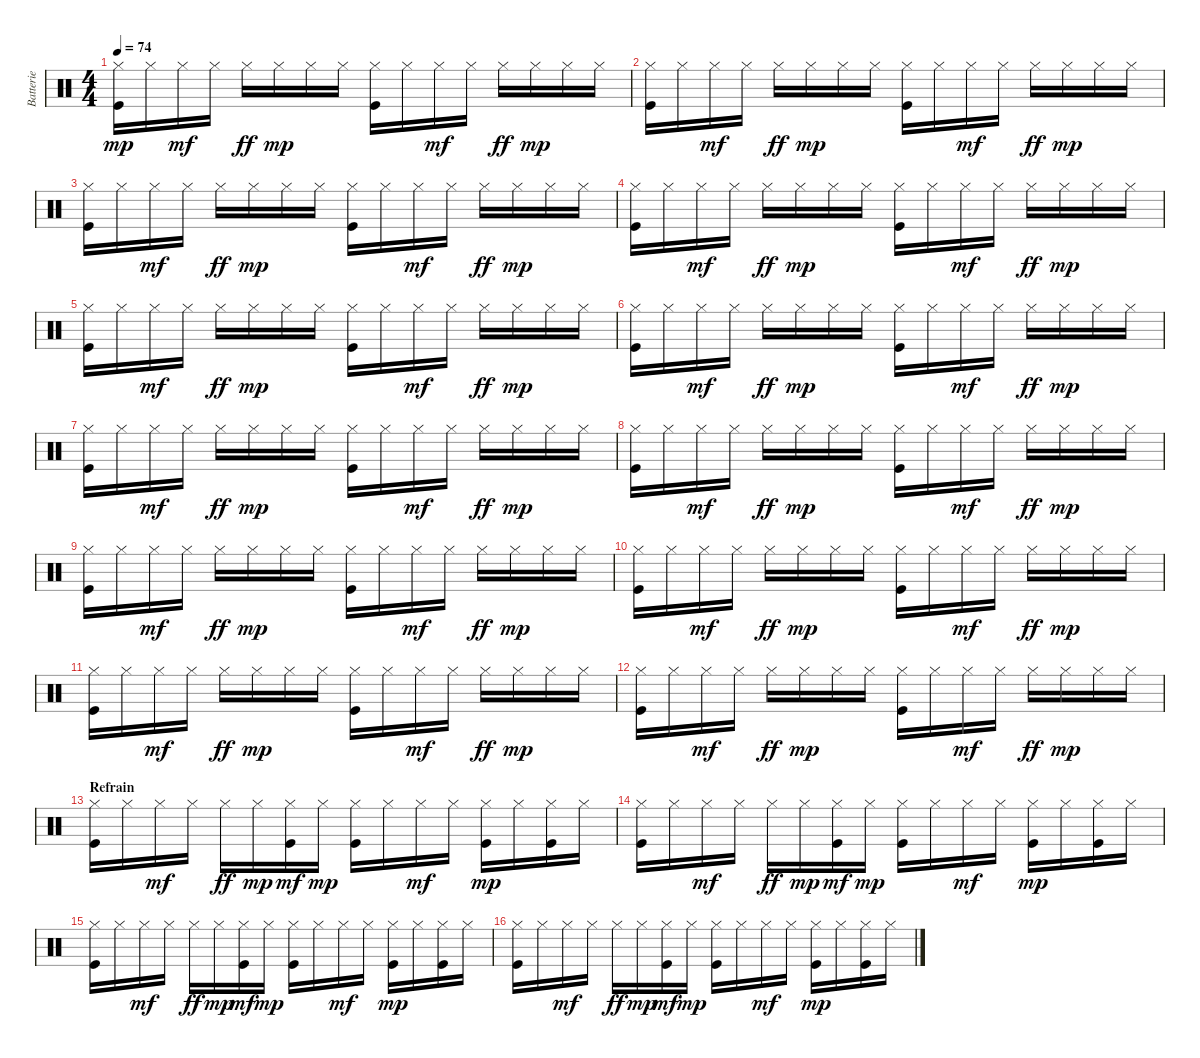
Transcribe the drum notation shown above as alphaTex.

\track ("Batterie" "Batterie") {instrument percussion}
\staff {score}
\articulation defaults
\ts (4 4)
\tempo 74
\clef neutral
\ks c
("Hi-Hat (closed)" "Kick (hit)").16{dy mp} "Hi-Hat (closed)".16 "Hi-Hat (closed)".16{dy mf} "Hi-Hat (closed)".16 "Hi-Hat (closed)".16{dy ff} "Hi-Hat (closed)".16{dy mp} "Hi-Hat (closed)".16 "Hi-Hat (closed)".16 ("Hi-Hat (closed)" "Kick (hit)").16 "Hi-Hat (closed)".16 "Hi-Hat (closed)".16{dy mf} "Hi-Hat (closed)".16 "Hi-Hat (closed)".16{dy ff} "Hi-Hat (closed)".16{dy mp} "Hi-Hat (closed)".16 "Hi-Hat (closed)".16 |
("Hi-Hat (closed)" "Kick (hit)").16 "Hi-Hat (closed)".16 "Hi-Hat (closed)".16{dy mf} "Hi-Hat (closed)".16 "Hi-Hat (closed)".16{dy ff} "Hi-Hat (closed)".16{dy mp} "Hi-Hat (closed)".16 "Hi-Hat (closed)".16 ("Hi-Hat (closed)" "Kick (hit)").16 "Hi-Hat (closed)".16 "Hi-Hat (closed)".16{dy mf} "Hi-Hat (closed)".16 "Hi-Hat (closed)".16{dy ff} "Hi-Hat (closed)".16{dy mp} "Hi-Hat (closed)".16 "Hi-Hat (closed)".16 |
("Hi-Hat (closed)" "Kick (hit)").16 "Hi-Hat (closed)".16 "Hi-Hat (closed)".16{dy mf} "Hi-Hat (closed)".16 "Hi-Hat (closed)".16{dy ff} "Hi-Hat (closed)".16{dy mp} "Hi-Hat (closed)".16 "Hi-Hat (closed)".16 ("Hi-Hat (closed)" "Kick (hit)").16 "Hi-Hat (closed)".16 "Hi-Hat (closed)".16{dy mf} "Hi-Hat (closed)".16 "Hi-Hat (closed)".16{dy ff} "Hi-Hat (closed)".16{dy mp} "Hi-Hat (closed)".16 "Hi-Hat (closed)".16 |
("Hi-Hat (closed)" "Kick (hit)").16 "Hi-Hat (closed)".16 "Hi-Hat (closed)".16{dy mf} "Hi-Hat (closed)".16 "Hi-Hat (closed)".16{dy ff} "Hi-Hat (closed)".16{dy mp} "Hi-Hat (closed)".16 "Hi-Hat (closed)".16 ("Hi-Hat (closed)" "Kick (hit)").16 "Hi-Hat (closed)".16 "Hi-Hat (closed)".16{dy mf} "Hi-Hat (closed)".16 "Hi-Hat (closed)".16{dy ff} "Hi-Hat (closed)".16{dy mp} "Hi-Hat (closed)".16 "Hi-Hat (closed)".16 |
("Hi-Hat (closed)" "Kick (hit)").16 "Hi-Hat (closed)".16 "Hi-Hat (closed)".16{dy mf} "Hi-Hat (closed)".16 "Hi-Hat (closed)".16{dy ff} "Hi-Hat (closed)".16{dy mp} "Hi-Hat (closed)".16 "Hi-Hat (closed)".16 ("Hi-Hat (closed)" "Kick (hit)").16 "Hi-Hat (closed)".16 "Hi-Hat (closed)".16{dy mf} "Hi-Hat (closed)".16 "Hi-Hat (closed)".16{dy ff} "Hi-Hat (closed)".16{dy mp} "Hi-Hat (closed)".16 "Hi-Hat (closed)".16 |
("Hi-Hat (closed)" "Kick (hit)").16 "Hi-Hat (closed)".16 "Hi-Hat (closed)".16{dy mf} "Hi-Hat (closed)".16 "Hi-Hat (closed)".16{dy ff} "Hi-Hat (closed)".16{dy mp} "Hi-Hat (closed)".16 "Hi-Hat (closed)".16 ("Hi-Hat (closed)" "Kick (hit)").16 "Hi-Hat (closed)".16 "Hi-Hat (closed)".16{dy mf} "Hi-Hat (closed)".16 "Hi-Hat (closed)".16{dy ff} "Hi-Hat (closed)".16{dy mp} "Hi-Hat (closed)".16 "Hi-Hat (closed)".16 |
("Hi-Hat (closed)" "Kick (hit)").16 "Hi-Hat (closed)".16 "Hi-Hat (closed)".16{dy mf} "Hi-Hat (closed)".16 "Hi-Hat (closed)".16{dy ff} "Hi-Hat (closed)".16{dy mp} "Hi-Hat (closed)".16 "Hi-Hat (closed)".16 ("Hi-Hat (closed)" "Kick (hit)").16 "Hi-Hat (closed)".16 "Hi-Hat (closed)".16{dy mf} "Hi-Hat (closed)".16 "Hi-Hat (closed)".16{dy ff} "Hi-Hat (closed)".16{dy mp} "Hi-Hat (closed)".16 "Hi-Hat (closed)".16 |
("Hi-Hat (closed)" "Kick (hit)").16 "Hi-Hat (closed)".16 "Hi-Hat (closed)".16{dy mf} "Hi-Hat (closed)".16 "Hi-Hat (closed)".16{dy ff} "Hi-Hat (closed)".16{dy mp} "Hi-Hat (closed)".16 "Hi-Hat (closed)".16 ("Hi-Hat (closed)" "Kick (hit)").16 "Hi-Hat (closed)".16 "Hi-Hat (closed)".16{dy mf} "Hi-Hat (closed)".16 "Hi-Hat (closed)".16{dy ff} "Hi-Hat (closed)".16{dy mp} "Hi-Hat (closed)".16 "Hi-Hat (closed)".16 |
("Hi-Hat (closed)" "Kick (hit)").16 "Hi-Hat (closed)".16 "Hi-Hat (closed)".16{dy mf} "Hi-Hat (closed)".16 "Hi-Hat (closed)".16{dy ff} "Hi-Hat (closed)".16{dy mp} "Hi-Hat (closed)".16 "Hi-Hat (closed)".16 ("Hi-Hat (closed)" "Kick (hit)").16 "Hi-Hat (closed)".16 "Hi-Hat (closed)".16{dy mf} "Hi-Hat (closed)".16 "Hi-Hat (closed)".16{dy ff} "Hi-Hat (closed)".16{dy mp} "Hi-Hat (closed)".16 "Hi-Hat (closed)".16 |
("Hi-Hat (closed)" "Kick (hit)").16 "Hi-Hat (closed)".16 "Hi-Hat (closed)".16{dy mf} "Hi-Hat (closed)".16 "Hi-Hat (closed)".16{dy ff} "Hi-Hat (closed)".16{dy mp} "Hi-Hat (closed)".16 "Hi-Hat (closed)".16 ("Hi-Hat (closed)" "Kick (hit)").16 "Hi-Hat (closed)".16 "Hi-Hat (closed)".16{dy mf} "Hi-Hat (closed)".16 "Hi-Hat (closed)".16{dy ff} "Hi-Hat (closed)".16{dy mp} "Hi-Hat (closed)".16 "Hi-Hat (closed)".16 |
("Hi-Hat (closed)" "Kick (hit)").16 "Hi-Hat (closed)".16 "Hi-Hat (closed)".16{dy mf} "Hi-Hat (closed)".16 "Hi-Hat (closed)".16{dy ff} "Hi-Hat (closed)".16{dy mp} "Hi-Hat (closed)".16 "Hi-Hat (closed)".16 ("Hi-Hat (closed)" "Kick (hit)").16 "Hi-Hat (closed)".16 "Hi-Hat (closed)".16{dy mf} "Hi-Hat (closed)".16 "Hi-Hat (closed)".16{dy ff} "Hi-Hat (closed)".16{dy mp} "Hi-Hat (closed)".16 "Hi-Hat (closed)".16 |
("Hi-Hat (closed)" "Kick (hit)").16 "Hi-Hat (closed)".16 "Hi-Hat (closed)".16{dy mf} "Hi-Hat (closed)".16 "Hi-Hat (closed)".16{dy ff} "Hi-Hat (closed)".16{dy mp} "Hi-Hat (closed)".16 "Hi-Hat (closed)".16 ("Hi-Hat (closed)" "Kick (hit)").16 "Hi-Hat (closed)".16 "Hi-Hat (closed)".16{dy mf} "Hi-Hat (closed)".16 "Hi-Hat (closed)".16{dy ff} "Hi-Hat (closed)".16{dy mp} "Hi-Hat (closed)".16 "Hi-Hat (closed)".16 |
\section ("" "Refrain")
("Hi-Hat (closed)" "Kick (hit)").16 "Hi-Hat (closed)".16 "Hi-Hat (closed)".16{dy mf} "Hi-Hat (closed)".16 "Hi-Hat (closed)".16{dy ff} "Hi-Hat (closed)".16{dy mp} ("Hi-Hat (closed)" "Kick (hit)").16{dy mf} "Hi-Hat (closed)".16{dy mp} ("Hi-Hat (closed)" "Kick (hit)").16 "Hi-Hat (closed)".16 "Hi-Hat (closed)".16{dy mf} "Hi-Hat (closed)".16 ("Hi-Hat (closed)" "Kick (hit)").16{dy mp} "Hi-Hat (closed)".16 ("Hi-Hat (closed)" "Kick (hit)").16 "Hi-Hat (closed)".16 |
("Hi-Hat (closed)" "Kick (hit)").16 "Hi-Hat (closed)".16 "Hi-Hat (closed)".16{dy mf} "Hi-Hat (closed)".16 "Hi-Hat (closed)".16{dy ff} "Hi-Hat (closed)".16{dy mp} ("Hi-Hat (closed)" "Kick (hit)").16{dy mf} "Hi-Hat (closed)".16{dy mp} ("Hi-Hat (closed)" "Kick (hit)").16 "Hi-Hat (closed)".16 "Hi-Hat (closed)".16{dy mf} "Hi-Hat (closed)".16 ("Hi-Hat (closed)" "Kick (hit)").16{dy mp} "Hi-Hat (closed)".16 ("Hi-Hat (closed)" "Kick (hit)").16 "Hi-Hat (closed)".16 |
("Hi-Hat (closed)" "Kick (hit)").16 "Hi-Hat (closed)".16 "Hi-Hat (closed)".16{dy mf} "Hi-Hat (closed)".16 "Hi-Hat (closed)".16{dy ff} "Hi-Hat (closed)".16{dy mp} ("Hi-Hat (closed)" "Kick (hit)").16{dy mf} "Hi-Hat (closed)".16{dy mp} ("Hi-Hat (closed)" "Kick (hit)").16 "Hi-Hat (closed)".16 "Hi-Hat (closed)".16{dy mf} "Hi-Hat (closed)".16 ("Hi-Hat (closed)" "Kick (hit)").16{dy mp} "Hi-Hat (closed)".16 ("Hi-Hat (closed)" "Kick (hit)").16 "Hi-Hat (closed)".16 |
("Hi-Hat (closed)" "Kick (hit)").16 "Hi-Hat (closed)".16 "Hi-Hat (closed)".16{dy mf} "Hi-Hat (closed)".16 "Hi-Hat (closed)".16{dy ff} "Hi-Hat (closed)".16{dy mp} ("Hi-Hat (closed)" "Kick (hit)").16{dy mf} "Hi-Hat (closed)".16{dy mp} ("Hi-Hat (closed)" "Kick (hit)").16 "Hi-Hat (closed)".16 "Hi-Hat (closed)".16{dy mf} "Hi-Hat (closed)".16 ("Hi-Hat (closed)" "Kick (hit)").16{dy mp} "Hi-Hat (closed)".16 ("Hi-Hat (closed)" "Kick (hit)").16 "Hi-Hat (closed)".16
